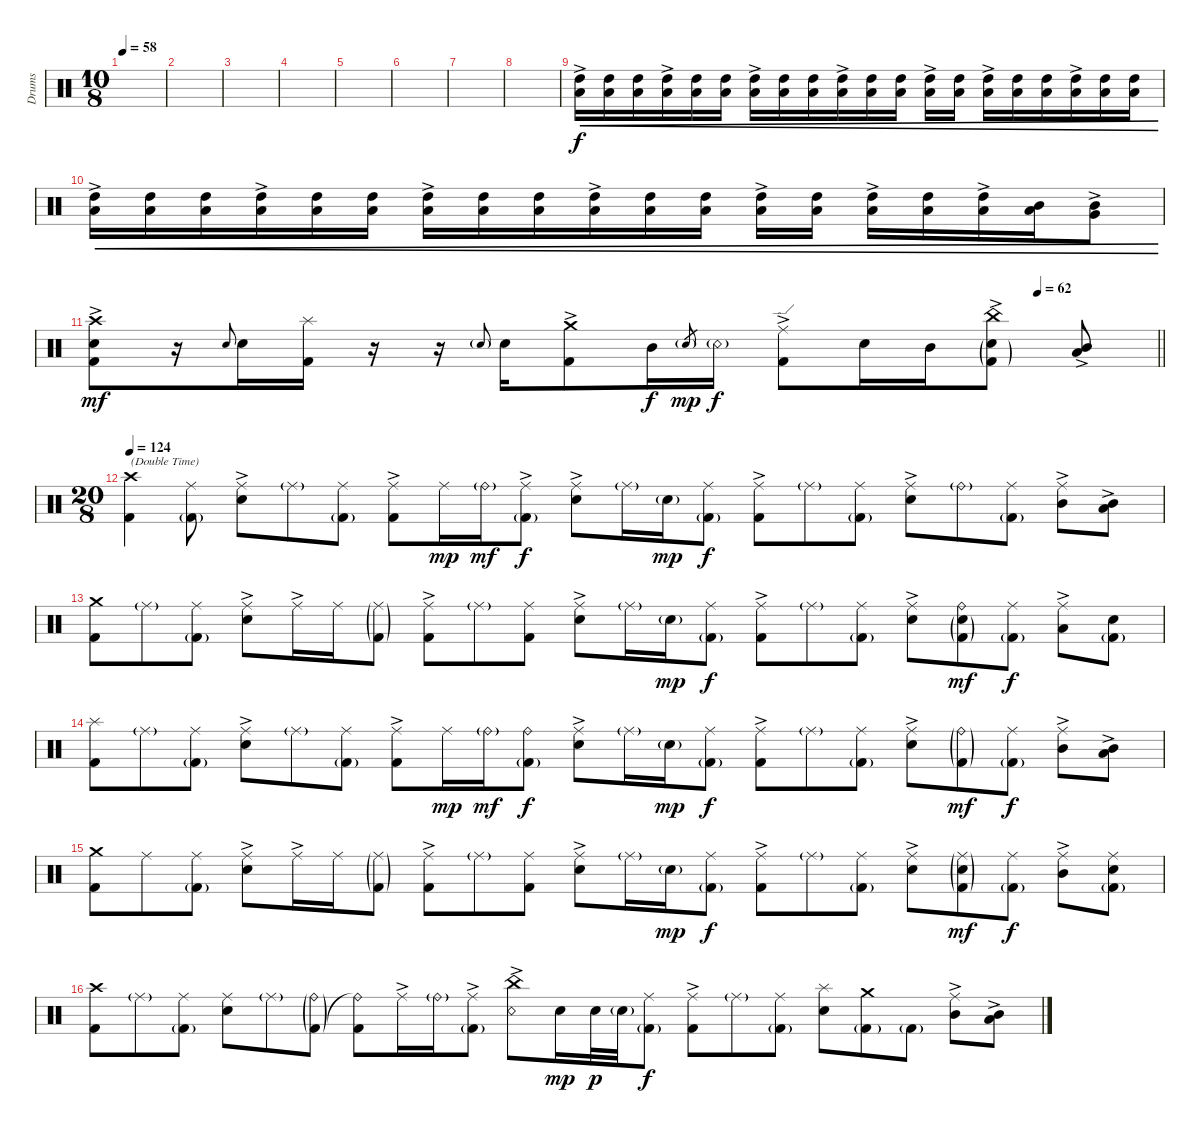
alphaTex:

\bracketExtendMode groupsimilarinstruments
\otherSystemsTrackNameOrientation horizontal
\track ("Drumkit" "Drums") {instrument percussion}
\staff {score}
\articulation defaults
\ts (10 8)
\beaming (8 3 3 1 3)
\tempo 58
\clef neutral
\ks c
|
|
|
|
|
|
|
|
("Low Tom (hit)"{ac} "High Tom (hit)").16{cre beam Down} ("Low Tom (hit)" "High Tom (hit)").16{cre beam Down} ("Low Tom (hit)" "High Tom (hit)").16{cre beam Down} ("Low Tom (hit)" "High Tom (hit)"{ac}).16{cre beam Down} ("Low Tom (hit)" "High Tom (hit)").16{cre beam Down} ("Low Tom (hit)" "High Tom (hit)").16{cre beam Down} ("Low Tom (hit)" "High Tom (hit)"{ac}).16{cre beam Down} ("Low Tom (hit)" "High Tom (hit)").16{cre beam Down} ("Low Tom (hit)" "High Tom (hit)").16{cre beam Down} ("Low Tom (hit)" "High Tom (hit)"{ac}).16{cre beam Down} ("Low Tom (hit)" "High Tom (hit)").16{cre beam Down} ("Low Tom (hit)" "High Tom (hit)").16{cre beam Down} ("Low Tom (hit)"{ac} "High Tom (hit)").16{cre beam Down} ("Low Tom (hit)" "High Tom (hit)").16{cre beam Down} ("Low Tom (hit)"{ac} "High Tom (hit)").16{cre beam Down} ("Low Tom (hit)" "High Tom (hit)").16{cre beam Down} ("Low Tom (hit)" "High Tom (hit)").16{cre beam Down} ("Low Tom (hit)" "High Tom (hit)"{ac}).16{cre beam Down} ("Low Tom (hit)" "High Tom (hit)").16{cre beam Down} ("Low Tom (hit)" "High Tom (hit)").16{cre beam Down} |
("Low Tom (hit)" "High Tom (hit)"{ac}).16{cre beam Down} ("Low Tom (hit)" "High Tom (hit)").16{cre beam Down} ("Low Tom (hit)" "High Tom (hit)").16{cre beam Down} ("Low Tom (hit)" "High Tom (hit)"{ac}).16{cre beam Down} ("Low Tom (hit)" "High Tom (hit)").16{cre beam Down} ("Low Tom (hit)" "High Tom (hit)").16{cre beam Down} ("Low Tom (hit)"{ac} "High Tom (hit)"{ac}).16{cre beam Down} ("Low Tom (hit)" "High Tom (hit)").16{cre beam Down} ("Low Tom (hit)" "High Tom (hit)").16{cre beam Down} ("Low Tom (hit)" "High Tom (hit)"{ac}).16{cre beam Down} ("Low Tom (hit)" "High Tom (hit)").16{cre beam Down} ("Low Tom (hit)" "High Tom (hit)").16{cre beam Down} ("Low Tom (hit)" "High Tom (hit)"{ac}).16{cre beam Down} ("Low Tom (hit)" "High Tom (hit)").16{cre beam Down} ("Low Tom (hit)" "High Tom (hit)"{ac}).16{cre beam Down} ("Low Tom (hit)" "High Tom (hit)").16{cre beam Down} ("Low Tom (hit)"{ac} "High Tom (hit)").16{cre beam Down} ("Low Tom (hit)" "Mid Tom (hit)").16{cre beam Down} ("Mid Tom (hit)" "Very Low Tom (hit)"{ac}).8{cre beam Down} |
\beaming (8 3 3 3 3 3 3 2)
\tempo (62 0.887324)
\barLineRight lightlight
("Kick (hit) 2" "Crash high (hit)"{ac} "Snare (hit) 2").8{dy mf beam Down} r.16{beam Down} "Snare (hit) 2".8{gr onbeat beam Up} "Snare (hit) 2".16{beam Down} ("Kick (hit) 2" "Splash (hit)").16{beam Down} r.16{beam Down} r.16{beam Down} "Snare (hit) 2"{g}.8{gr onbeat beam Up} "Snare (hit) 2".16{beam Down} ("Kick (hit) 2" "Crash medium (hit)"{ac}).8{beam Down} "Mid Tom (hit)".16{dy f beam Down} "Snare (hit) 2"{g}.8{gr dy mp beam Up} "Snare (rim shot)"{g}.16{dy f beam Down} ("Kick (hit) 2" "Ride (edge)"{ac}).8{beam Down} "Snare (hit) 2".16{beam Down} "Mid Tom (hit)".16{beam Down} ("Kick (hit) 2"{g} "China (hit)"{ac} "Snare (hit) 2"{g}).8{beam Down} ("Mid Tom (hit)"{ac} "Low Tom (hit)"{ac}).8{beam Up} |
\ts (20 8)
\beaming (8 3 3 3 3 3 3 2)
\tempo 124
("Kick (hit) 2" "Crash high (hit)").4{txt "(Double Time)" beam Down} ("Ride (middle)" "Kick (hit) 2"{g}).8{beam Down} ("Ride (middle)"{ac} "Snare (hit) 2").8{beam Down} "Ride (middle)"{g}.8{beam Down} ("Ride (middle)" "Kick (hit) 2"{g}).8{beam Down} ("Ride (middle)"{ac} "Kick (hit) 2").8{beam Down} "Ride (middle)".16{dy mp beam Down} "Ride (bell)"{g}.16{dy mf beam Down} ("Ride (middle)"{ac} "Kick (hit) 2"{g}).8{dy f beam Down} ("Ride (middle)"{ac} "Snare (hit) 2").8{beam Down} "Ride (middle)"{g}.16{beam Down} "Snare (hit) 2"{g}.16{dy mp beam Down} ("Ride (middle)" "Kick (hit) 2"{g}).8{dy f beam Down} ("Kick (hit) 2" "Ride (middle)"{ac}).8{beam Down} "Ride (middle)"{g}.8{beam Down} ("Ride (middle)" "Kick (hit) 2"{g}).8{beam Down} ("Ride (middle)"{ac} "Snare (hit) 2").8{beam Down} "Ride (bell)"{g}.8{beam Down} ("Ride (middle)" "Kick (hit) 2"{g}).8{beam Down} ("Ride (middle)"{ac} "Mid Tom (hit)").8{beam Down} ("Mid Tom (hit)" "Low Tom (hit)"{ac}).8{beam Down} |
("Kick (hit) 2" "Crash medium (hit)").8{beam Down} "Ride (middle)"{g}.8{beam Down} ("Ride (middle)" "Kick (hit) 2"{g}).8{beam Down} ("Ride (middle)"{ac} "Snare (hit) 2").8{beam Down} "Ride (middle)"{ac}.16{beam Down} "Ride (middle)".16{beam Down} ("Ride (middle)"{g} "Kick (hit) 2"{g}).8{beam Down} ("Ride (middle)"{ac} "Kick (hit) 2").8{beam Down} "Ride (middle)"{g}.8{beam Down} ("Ride (middle)" "Kick (hit) 2").8{beam Down} ("Ride (middle)"{ac} "Snare (hit) 2").8{beam Down} "Ride (middle)"{g}.16{beam Down} "Snare (hit) 2"{g}.16{dy mp beam Down} ("Ride (middle)" "Kick (hit) 2"{g}).8{dy f beam Down} ("Kick (hit) 2" "Ride (middle)"{ac}).8{beam Down} "Ride (middle)"{g}.8{beam Down} ("Ride (middle)" "Kick (hit) 2"{g}).8{beam Down} ("Ride (middle)"{ac} "Snare (hit) 2").8{beam Down} ("Ride (bell)" "Snare (hit) 2"{g} "Kick (hit) 2"{g}).8{dy mf beam Down} ("Ride (middle)" "Kick (hit) 2"{g}).8{dy f beam Down} ("Low Tom (hit)"{ac} "Ride (middle)").8{beam Down} ("Snare (hit) 2" "Kick (hit) 2"{g}).8{beam Down} |
("Kick (hit) 2" "Splash (hit)").8{beam Down} "Ride (middle)"{g}.8{beam Down} ("Ride (middle)" "Kick (hit) 2"{g}).8{beam Down} ("Ride (middle)"{ac} "Snare (hit) 2").8{beam Down} "Ride (middle)"{g}.8{beam Down} ("Ride (middle)" "Kick (hit) 2"{g}).8{beam Down} ("Ride (middle)"{ac} "Kick (hit) 2").8{beam Down} "Ride (middle)".16{dy mp beam Down} "Ride (bell)"{g}.16{dy mf beam Down} ("Ride (bell)" "Kick (hit) 2"{g}).8{dy f beam Down} ("Ride (middle)"{ac} "Snare (hit) 2").8{beam Down} "Ride (middle)"{g}.16{beam Down} "Snare (hit) 2"{g}.16{dy mp beam Down} ("Ride (middle)" "Kick (hit) 2"{g}).8{dy f beam Down} ("Kick (hit) 2" "Ride (middle)"{ac}).8{beam Down} "Ride (middle)"{g}.8{beam Down} ("Ride (middle)" "Kick (hit) 2"{g}).8{beam Down} ("Ride (middle)"{ac} "Snare (hit) 2").8{beam Down} ("Ride (bell)"{g} "Kick (hit) 2"{g}).8{dy mf beam Down} ("Ride (middle)" "Kick (hit) 2"{g}).8{dy f beam Down} ("Ride (middle)"{ac} "Mid Tom (hit)").8{beam Down} ("Mid Tom (hit)" "Low Tom (hit)"{ac}).8{beam Down} |
("Kick (hit) 2" "Crash medium (hit)").8{beam Down} "Ride (middle)".8{beam Down} ("Ride (middle)" "Kick (hit) 2"{g}).8{beam Down} ("Ride (middle)"{ac} "Snare (hit) 2").8{beam Down} "Ride (middle)"{ac}.16{beam Down} "Ride (middle)".16{beam Down} ("Ride (middle)"{g} "Kick (hit) 2"{g}).8{beam Down} ("Ride (middle)"{ac} "Kick (hit) 2").8{beam Down} "Ride (middle)"{g}.8{beam Down} ("Ride (middle)" "Kick (hit) 2").8{beam Down} ("Ride (middle)"{ac} "Snare (hit) 2").8{beam Down} "Ride (middle)"{g}.16{beam Down} "Snare (hit) 2"{g}.16{dy mp beam Down} ("Ride (middle)" "Kick (hit) 2"{g}).8{dy f beam Down} ("Kick (hit) 2" "Ride (middle)"{ac}).8{beam Down} "Ride (middle)"{g}.8{beam Down} ("Ride (middle)" "Kick (hit) 2"{g}).8{beam Down} ("Ride (middle)"{ac} "Snare (hit) 2").8{beam Down} ("Ride (middle)"{g} "Snare (hit) 2"{g} "Kick (hit) 2"{g}).8{dy mf beam Down} ("Ride (middle)" "Kick (hit) 2"{g}).8{dy f beam Down} ("Mid Tom (hit)" "Ride (middle)"{ac}).8{beam Down} ("Snare (hit) 2" "Ride (middle)" "Kick (hit) 2"{g}).8{beam Down} |
("Kick (hit) 2" "Crash high (hit)").8{beam Down} "Ride (middle)"{g}.8{beam Down} ("Ride (middle)" "Kick (hit) 2"{g}).8{beam Down} ("Snare (hit) 2" "Ride (middle)").8{beam Down} "Ride (middle)"{g}.8{beam Down} ("Ride (bell)"{g} "Kick (hit) 2"{g}).8{beam Down} ("Kick (hit) 2" "Ride (bell)"{t}).8{beam Down} "Ride (middle)"{ac}.16{beam Down} "Ride (bell)"{g}.16{beam Down} ("Ride (middle)"{ac} "Kick (hit) 2"{g}).8{beam Down} ("Snare (rim shot)" "China (hit)"{ac}).8{beam Down} "Snare (hit) 2".16{dy mp beam Down} "Snare (hit) 2".32{dy p beam Down} "Snare (hit) 2"{g}.32{beam Down} ("Ride (middle)" "Kick (hit) 2"{g}).8{dy f beam Down} ("Kick (hit) 2" "Ride (middle)"{ac}).8{beam Down} "Ride (middle)"{g}.8{beam Down} ("Ride (middle)" "Kick (hit) 2"{g}).8{beam Down} ("Snare (hit) 2" "Splash (hit)").8{beam Down} ("Kick (hit) 2"{g} "Crash medium (hit)").8{beam Down} "Kick (hit) 2"{g}.8{beam Down} ("Ride (middle)"{ac} "Mid Tom (hit)").8{beam Down} ("Mid Tom (hit)" "Low Tom (hit)"{ac}).8{beam Down}
